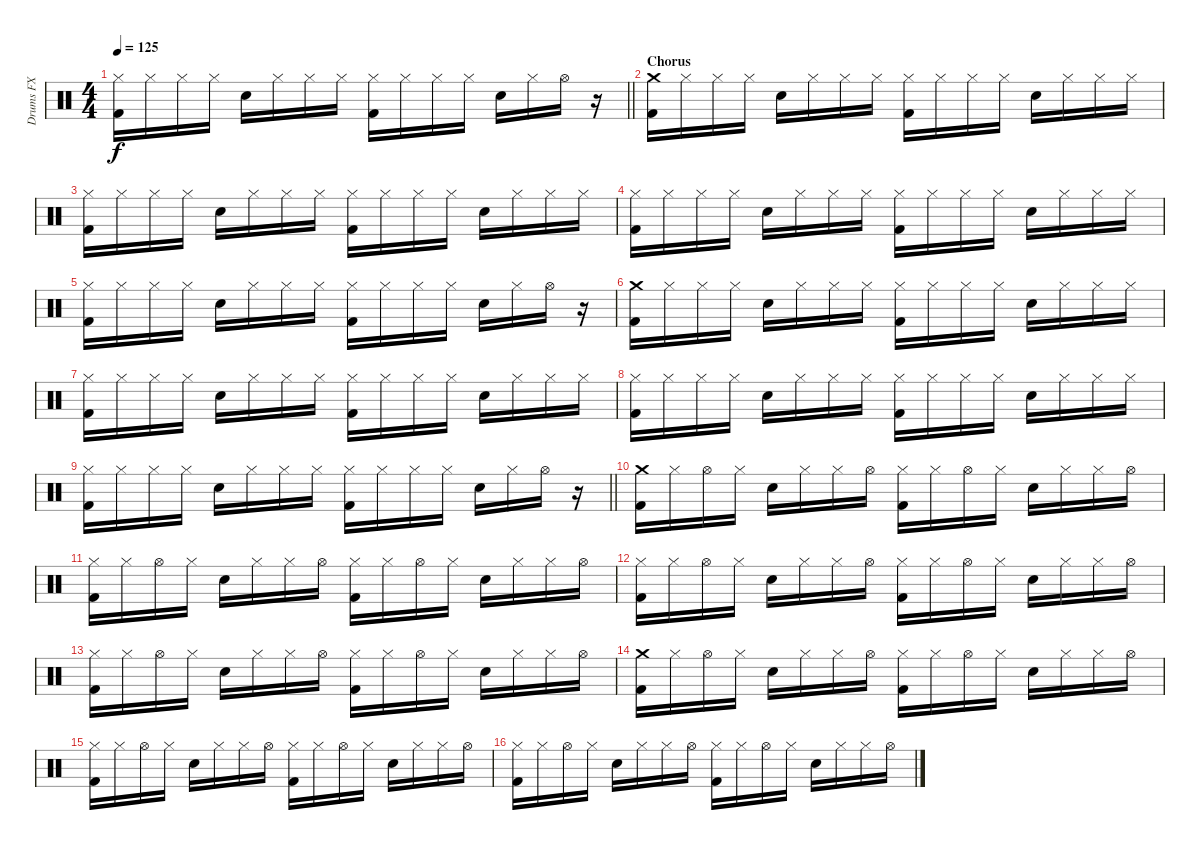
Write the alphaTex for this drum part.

\track ("Drums FX" "Drums FX") {instrument percussion}
\staff {score}
\articulation defaults
\ts (4 4)
\tempo 125
\clef neutral
\barLineRight lightlight
\ks c
("Hi-Hat (closed)" "Kick (hit) 2").16{dy f} "Hi-Hat (closed)".16 "Hi-Hat (closed)".16 "Hi-Hat (closed)".16 "Snare (hit) 2".16 "Hi-Hat (closed)".16 "Hi-Hat (closed)".16 "Hi-Hat (closed)".16 ("Hi-Hat (closed)" "Kick (hit) 2").16 "Hi-Hat (closed)".16 "Hi-Hat (closed)".16 "Hi-Hat (closed)".16 "Snare (hit) 2".16 "Hi-Hat (closed)".16 "Hi-Hat (open)".16 r.16 |
\section ("" "Chorus")
("Crash medium (hit)" "Kick (hit) 2").16 "Hi-Hat (closed)".16 "Hi-Hat (closed)".16 "Hi-Hat (closed)".16 "Snare (hit) 2".16 "Hi-Hat (closed)".16 "Hi-Hat (closed)".16 "Hi-Hat (closed)".16 ("Hi-Hat (closed)" "Kick (hit) 2").16 "Hi-Hat (closed)".16 "Hi-Hat (closed)".16 "Hi-Hat (closed)".16 "Snare (hit) 2".16 "Hi-Hat (closed)".16 "Hi-Hat (closed)".16 "Hi-Hat (closed)".16 |
("Hi-Hat (closed)" "Kick (hit) 2").16 "Hi-Hat (closed)".16 "Hi-Hat (closed)".16 "Hi-Hat (closed)".16 "Snare (hit) 2".16 "Hi-Hat (closed)".16 "Hi-Hat (closed)".16 "Hi-Hat (closed)".16 ("Hi-Hat (closed)" "Kick (hit) 2").16 "Hi-Hat (closed)".16 "Hi-Hat (closed)".16 "Hi-Hat (closed)".16 "Snare (hit) 2".16 "Hi-Hat (closed)".16 "Hi-Hat (closed)".16 "Hi-Hat (closed)".16 |
("Hi-Hat (closed)" "Kick (hit) 2").16 "Hi-Hat (closed)".16 "Hi-Hat (closed)".16 "Hi-Hat (closed)".16 "Snare (hit) 2".16 "Hi-Hat (closed)".16 "Hi-Hat (closed)".16 "Hi-Hat (closed)".16 ("Hi-Hat (closed)" "Kick (hit) 2").16 "Hi-Hat (closed)".16 "Hi-Hat (closed)".16 "Hi-Hat (closed)".16 "Snare (hit) 2".16 "Hi-Hat (closed)".16 "Hi-Hat (closed)".16 "Hi-Hat (closed)".16 |
("Hi-Hat (closed)" "Kick (hit) 2").16 "Hi-Hat (closed)".16 "Hi-Hat (closed)".16 "Hi-Hat (closed)".16 "Snare (hit) 2".16 "Hi-Hat (closed)".16 "Hi-Hat (closed)".16 "Hi-Hat (closed)".16 ("Hi-Hat (closed)" "Kick (hit) 2").16 "Hi-Hat (closed)".16 "Hi-Hat (closed)".16 "Hi-Hat (closed)".16 "Snare (hit) 2".16 "Hi-Hat (closed)".16 "Hi-Hat (open)".16 r.16 |
("Crash medium (hit)" "Kick (hit) 2").16 "Hi-Hat (closed)".16 "Hi-Hat (closed)".16 "Hi-Hat (closed)".16 "Snare (hit) 2".16 "Hi-Hat (closed)".16 "Hi-Hat (closed)".16 "Hi-Hat (closed)".16 ("Hi-Hat (closed)" "Kick (hit) 2").16 "Hi-Hat (closed)".16 "Hi-Hat (closed)".16 "Hi-Hat (closed)".16 "Snare (hit) 2".16 "Hi-Hat (closed)".16 "Hi-Hat (closed)".16 "Hi-Hat (closed)".16 |
("Hi-Hat (closed)" "Kick (hit) 2").16 "Hi-Hat (closed)".16 "Hi-Hat (closed)".16 "Hi-Hat (closed)".16 "Snare (hit) 2".16 "Hi-Hat (closed)".16 "Hi-Hat (closed)".16 "Hi-Hat (closed)".16 ("Hi-Hat (closed)" "Kick (hit) 2").16 "Hi-Hat (closed)".16 "Hi-Hat (closed)".16 "Hi-Hat (closed)".16 "Snare (hit) 2".16 "Hi-Hat (closed)".16 "Hi-Hat (closed)".16 "Hi-Hat (closed)".16 |
("Hi-Hat (closed)" "Kick (hit) 2").16 "Hi-Hat (closed)".16 "Hi-Hat (closed)".16 "Hi-Hat (closed)".16 "Snare (hit) 2".16 "Hi-Hat (closed)".16 "Hi-Hat (closed)".16 "Hi-Hat (closed)".16 ("Hi-Hat (closed)" "Kick (hit) 2").16 "Hi-Hat (closed)".16 "Hi-Hat (closed)".16 "Hi-Hat (closed)".16 "Snare (hit) 2".16 "Hi-Hat (closed)".16 "Hi-Hat (closed)".16 "Hi-Hat (closed)".16 |
\barLineRight lightlight
("Hi-Hat (closed)" "Kick (hit) 2").16 "Hi-Hat (closed)".16 "Hi-Hat (closed)".16 "Hi-Hat (closed)".16 "Snare (hit) 2".16 "Hi-Hat (closed)".16 "Hi-Hat (closed)".16 "Hi-Hat (closed)".16 ("Hi-Hat (closed)" "Kick (hit) 2").16 "Hi-Hat (closed)".16 "Hi-Hat (closed)".16 "Hi-Hat (closed)".16 "Snare (hit) 2".16 "Hi-Hat (closed)".16 "Hi-Hat (open)".16 r.16 |
("Crash medium (hit)" "Kick (hit) 2").16 "Hi-Hat (closed)".16 "Hi-Hat (open)".16 "Hi-Hat (closed)".16 "Snare (hit) 2".16 "Hi-Hat (closed)".16 "Hi-Hat (closed)".16 "Hi-Hat (open)".16 ("Hi-Hat (closed)" "Kick (hit) 2").16 "Hi-Hat (closed)".16 "Hi-Hat (open)".16 "Hi-Hat (closed)".16 "Snare (hit) 2".16 "Hi-Hat (closed)".16 "Hi-Hat (closed)".16 "Hi-Hat (open)".16 |
("Hi-Hat (closed)" "Kick (hit) 2").16 "Hi-Hat (closed)".16 "Hi-Hat (open)".16 "Hi-Hat (closed)".16 "Snare (hit) 2".16 "Hi-Hat (closed)".16 "Hi-Hat (closed)".16 "Hi-Hat (open)".16 ("Hi-Hat (closed)" "Kick (hit) 2").16 "Hi-Hat (closed)".16 "Hi-Hat (open)".16 "Hi-Hat (closed)".16 "Snare (hit) 2".16 "Hi-Hat (closed)".16 "Hi-Hat (closed)".16 "Hi-Hat (open)".16 |
("Hi-Hat (closed)" "Kick (hit) 2").16 "Hi-Hat (closed)".16 "Hi-Hat (open)".16 "Hi-Hat (closed)".16 "Snare (hit) 2".16 "Hi-Hat (closed)".16 "Hi-Hat (closed)".16 "Hi-Hat (open)".16 ("Hi-Hat (closed)" "Kick (hit) 2").16 "Hi-Hat (closed)".16 "Hi-Hat (open)".16 "Hi-Hat (closed)".16 "Snare (hit) 2".16 "Hi-Hat (closed)".16 "Hi-Hat (closed)".16 "Hi-Hat (open)".16 |
("Hi-Hat (closed)" "Kick (hit) 2").16 "Hi-Hat (closed)".16 "Hi-Hat (open)".16 "Hi-Hat (closed)".16 "Snare (hit) 2".16 "Hi-Hat (closed)".16 "Hi-Hat (closed)".16 "Hi-Hat (open)".16 ("Hi-Hat (closed)" "Kick (hit) 2").16 "Hi-Hat (closed)".16 "Hi-Hat (open)".16 "Hi-Hat (closed)".16 "Snare (hit) 2".16 "Hi-Hat (closed)".16 "Hi-Hat (closed)".16 "Hi-Hat (open)".16 |
("Crash medium (hit)" "Kick (hit) 2").16 "Hi-Hat (closed)".16 "Hi-Hat (open)".16 "Hi-Hat (closed)".16 "Snare (hit) 2".16 "Hi-Hat (closed)".16 "Hi-Hat (closed)".16 "Hi-Hat (open)".16 ("Hi-Hat (closed)" "Kick (hit) 2").16 "Hi-Hat (closed)".16 "Hi-Hat (open)".16 "Hi-Hat (closed)".16 "Snare (hit) 2".16 "Hi-Hat (closed)".16 "Hi-Hat (closed)".16 "Hi-Hat (open)".16 |
("Hi-Hat (closed)" "Kick (hit) 2").16 "Hi-Hat (closed)".16 "Hi-Hat (open)".16 "Hi-Hat (closed)".16 "Snare (hit) 2".16 "Hi-Hat (closed)".16 "Hi-Hat (closed)".16 "Hi-Hat (open)".16 ("Hi-Hat (closed)" "Kick (hit) 2").16 "Hi-Hat (closed)".16 "Hi-Hat (open)".16 "Hi-Hat (closed)".16 "Snare (hit) 2".16 "Hi-Hat (closed)".16 "Hi-Hat (closed)".16 "Hi-Hat (open)".16 |
("Hi-Hat (closed)" "Kick (hit) 2").16 "Hi-Hat (closed)".16 "Hi-Hat (open)".16 "Hi-Hat (closed)".16 "Snare (hit) 2".16 "Hi-Hat (closed)".16 "Hi-Hat (closed)".16 "Hi-Hat (open)".16 ("Hi-Hat (closed)" "Kick (hit) 2").16 "Hi-Hat (closed)".16 "Hi-Hat (open)".16 "Hi-Hat (closed)".16 "Snare (hit) 2".16 "Hi-Hat (closed)".16 "Hi-Hat (closed)".16 "Hi-Hat (open)".16
